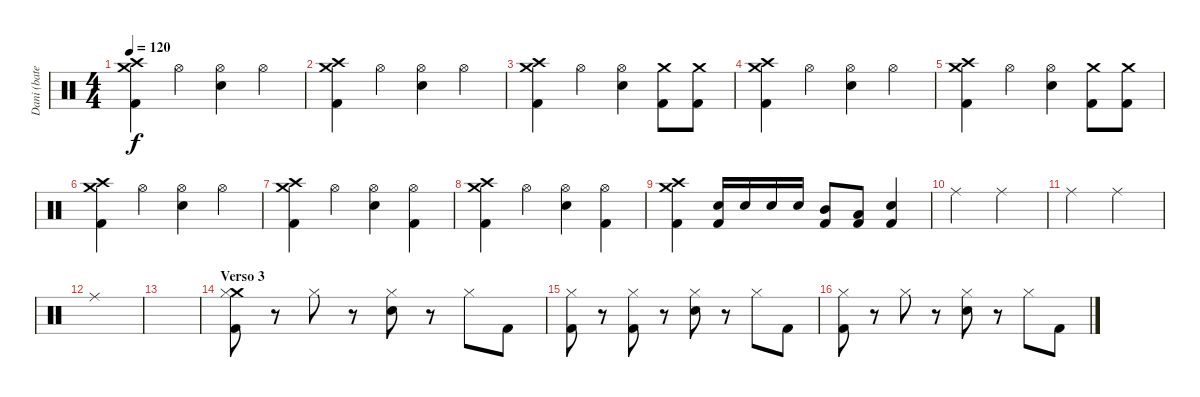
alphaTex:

\track ("Dani (batería)" "Dani (bate") {instrument percussion}
\staff {score}
\articulation defaults
\ts (4 4)
\tempo 120
\clef neutral
\ks c
("Crash high (hit)" "Crash medium (hit)" "Kick (hit) 2").4{dy f} "Hi-Hat (open)".4 ("Hi-Hat (open)" "Electric Snare (hit)").4 "Hi-Hat (open)".4 |
("Crash high (hit)" "Crash medium (hit)" "Kick (hit) 2").4 "Hi-Hat (open)".4 ("Hi-Hat (open)" "Electric Snare (hit)").4 "Hi-Hat (open)".4 |
("Crash high (hit)" "Crash medium (hit)" "Kick (hit) 2").4 "Hi-Hat (open)".4 ("Hi-Hat (open)" "Electric Snare (hit)").4 ("Crash medium (hit)" "Kick (hit) 2").8 ("Crash medium (hit)" "Kick (hit) 2").8 |
("Crash high (hit)" "Crash medium (hit)" "Kick (hit) 2").4 "Hi-Hat (open)".4 ("Hi-Hat (open)" "Electric Snare (hit)").4 "Hi-Hat (open)".4 |
("Crash high (hit)" "Crash medium (hit)" "Kick (hit) 2").4 "Hi-Hat (open)".4 ("Hi-Hat (open)" "Electric Snare (hit)").4 ("Crash medium (hit)" "Kick (hit) 2").8 ("Crash medium (hit)" "Kick (hit) 2").8 |
("Crash high (hit)" "Crash medium (hit)" "Kick (hit) 2").4 "Hi-Hat (open)".4 ("Hi-Hat (open)" "Electric Snare (hit)").4 "Hi-Hat (open)".4 |
("Crash high (hit)" "Crash medium (hit)" "Kick (hit) 2").4 "Hi-Hat (open)".4 ("Hi-Hat (open)" "Electric Snare (hit)").4 ("Hi-Hat (open)" "Kick (hit) 2").4 |
("Crash high (hit)" "Crash medium (hit)" "Kick (hit) 2").4 "Hi-Hat (open)".4 ("Hi-Hat (open)" "Electric Snare (hit)").4 ("Hi-Hat (open)" "Kick (hit) 2").4 |
("Crash high (hit)" "Crash medium (hit)" "Kick (hit) 2").4 ("Electric Snare (hit)" "Kick (hit) 2").16 "Electric Snare (hit)".16 "Electric Snare (hit)".16 "Electric Snare (hit)".16 ("Mid Tom (hit)" "Kick (hit) 2").8 ("Low Tom (hit)" "Kick (hit) 2").8 ("Electric Snare (hit)" "Kick (hit) 2").4 |
"Ride (middle)".2 "Ride (middle)".2 |
"Ride (middle)".2 "Ride (middle)".2 |
"Ride (middle)".1 |
|
\section ("" "Verso 3")
("Crash medium (hit)" "Hi-Hat (closed)" "Kick (hit) 2").8 r.8 "Hi-Hat (closed)".8 r.8 ("Hi-Hat (closed)" "Electric Snare (hit)").8 r.8 "Hi-Hat (closed)".8 "Kick (hit) 2".8 |
("Hi-Hat (closed)" "Kick (hit) 2").8 r.8 ("Hi-Hat (closed)" "Kick (hit) 2").8 r.8 ("Hi-Hat (closed)" "Electric Snare (hit)").8 r.8 "Hi-Hat (closed)".8 "Kick (hit) 2".8 |
("Hi-Hat (closed)" "Kick (hit) 2").8 r.8 "Hi-Hat (closed)".8 r.8 ("Hi-Hat (closed)" "Electric Snare (hit)").8 r.8 "Hi-Hat (closed)".8 "Kick (hit) 2".8
